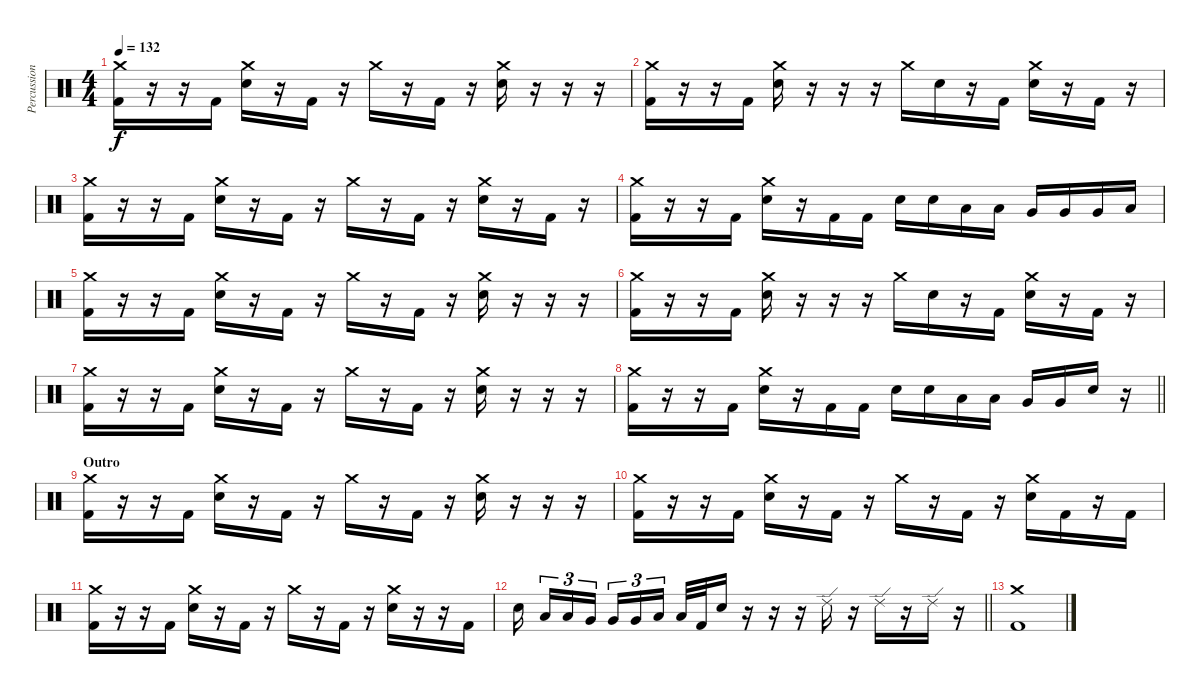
\track ("Percussion" "Percussion") {instrument percussion}
\staff {score}
\articulation defaults
\ts (4 4)
\tempo 132
\clef neutral
\ks c
("Crash medium (hit)" "Kick (hit) 2").16{dy f} r.16 r.16 "Kick (hit) 2".16 ("Crash medium (hit)" "Electric Snare (hit)").16 r.16 "Kick (hit) 2".16 r.16 "Crash medium (hit)".16 r.16 "Kick (hit) 2".16 r.16 ("Crash medium (hit)" "Electric Snare (hit)").16 r.16 r.16 r.16 |
("Crash medium (hit)" "Kick (hit) 2").16 r.16 r.16 "Kick (hit) 2".16 ("Crash medium (hit)" "Electric Snare (hit)").16 r.16 r.16 r.16 "Crash medium (hit)".16 "Electric Snare (hit)".16 r.16 "Kick (hit) 2".16 ("Crash medium (hit)" "Electric Snare (hit)").16 r.16 "Kick (hit) 2".16 r.16 |
("Crash medium (hit)" "Kick (hit) 2").16 r.16 r.16 "Kick (hit) 2".16 ("Crash medium (hit)" "Electric Snare (hit)").16 r.16 "Kick (hit) 2".16 r.16 "Crash medium (hit)".16 r.16 "Kick (hit) 2".16 r.16 ("Crash medium (hit)" "Electric Snare (hit)").16 r.16 "Kick (hit) 2".16 r.16 |
("Crash medium (hit)" "Kick (hit) 2").16 r.16 r.16 "Kick (hit) 2".16 ("Crash medium (hit)" "Electric Snare (hit)").16 r.16 "Kick (hit) 2".16 "Kick (hit) 2".16 "Electric Snare (hit)".16 "Electric Snare (hit)".16 "Low Tom (hit)".16 "Low Tom (hit)".16 "Very Low Tom (hit)".16 "Very Low Tom (hit)".16 "Very Low Tom (hit)".16 "Low Tom (hit)".16 |
("Crash medium (hit)" "Kick (hit) 2").16 r.16 r.16 "Kick (hit) 2".16 ("Crash medium (hit)" "Electric Snare (hit)").16 r.16 "Kick (hit) 2".16 r.16 "Crash medium (hit)".16 r.16 "Kick (hit) 2".16 r.16 ("Crash medium (hit)" "Electric Snare (hit)").16 r.16 r.16 r.16 |
("Crash medium (hit)" "Kick (hit) 2").16 r.16 r.16 "Kick (hit) 2".16 ("Crash medium (hit)" "Electric Snare (hit)").16 r.16 r.16 r.16 "Crash medium (hit)".16 "Electric Snare (hit)".16 r.16 "Kick (hit) 2".16 ("Crash medium (hit)" "Electric Snare (hit)").16 r.16 "Kick (hit) 2".16 r.16 |
("Crash medium (hit)" "Kick (hit) 2").16 r.16 r.16 "Kick (hit) 2".16 ("Crash medium (hit)" "Electric Snare (hit)").16 r.16 "Kick (hit) 2".16 r.16 "Crash medium (hit)".16 r.16 "Kick (hit) 2".16 r.16 ("Crash medium (hit)" "Electric Snare (hit)").16 r.16 r.16 r.16 |
\barLineRight lightlight
("Crash medium (hit)" "Kick (hit) 2").16 r.16 r.16 "Kick (hit) 2".16 ("Crash medium (hit)" "Electric Snare (hit)").16 r.16 "Kick (hit) 2".16 "Kick (hit) 2".16 "Electric Snare (hit)".16 "Electric Snare (hit)".16 "Low Tom (hit)".16 "Low Tom (hit)".16 "Very Low Tom (hit)".16 "Very Low Tom (hit)".16 "Electric Snare (hit)".16 r.16 |
\section ("" "Outro")
("Crash medium (hit)" "Kick (hit) 2").16 r.16 r.16 "Kick (hit) 2".16 ("Crash medium (hit)" "Electric Snare (hit)").16 r.16 "Kick (hit) 2".16 r.16 "Crash medium (hit)".16 r.16 "Kick (hit) 2".16 r.16 ("Crash medium (hit)" "Electric Snare (hit)").16 r.16 r.16 r.16 |
("Crash medium (hit)" "Kick (hit) 2").16 r.16 r.16 "Kick (hit) 2".16 ("Crash medium (hit)" "Electric Snare (hit)").16 r.16 "Kick (hit) 2".16 r.16 "Crash medium (hit)".16 r.16 "Kick (hit) 2".16 r.16 ("Crash medium (hit)" "Electric Snare (hit)").16 "Kick (hit) 2".16 r.16 "Kick (hit) 2".16 |
("Crash medium (hit)" "Kick (hit) 2").16 r.16 r.16 "Kick (hit) 2".16 ("Crash medium (hit)" "Electric Snare (hit)").16 r.16 "Kick (hit) 2".16 r.16 "Crash medium (hit)".16 r.16 "Kick (hit) 2".16 r.16 ("Crash medium (hit)" "Electric Snare (hit)").16 r.16 r.16 "Kick (hit) 2".16 |
\barLineRight lightlight "Electric Snare (hit)".16{beam splitsecondary} "Low Tom (hit)".16{tu (3 2)} "Low Tom (hit)".16{tu (3 2)} "Very Low Tom (hit)".16{tu (3 2) beam splitsecondary} "Very Low Tom (hit)".16{tu (3 2)} "Very Low Tom (hit)".16{tu (3 2)} "Low Tom (hit)".16{tu (3 2) beam splitsecondary} "Low Tom (hit)".32 "Kick (hit) 2".32 "Electric Snare (hit)".16
r.16 r.16 r.16 "Ride (edge) 2".16 r.16 "Ride (edge) 2".16 r.16 "Ride (edge) 2".16 r.16 |
("Crash medium (hit)" "Kick (hit) 2").1
